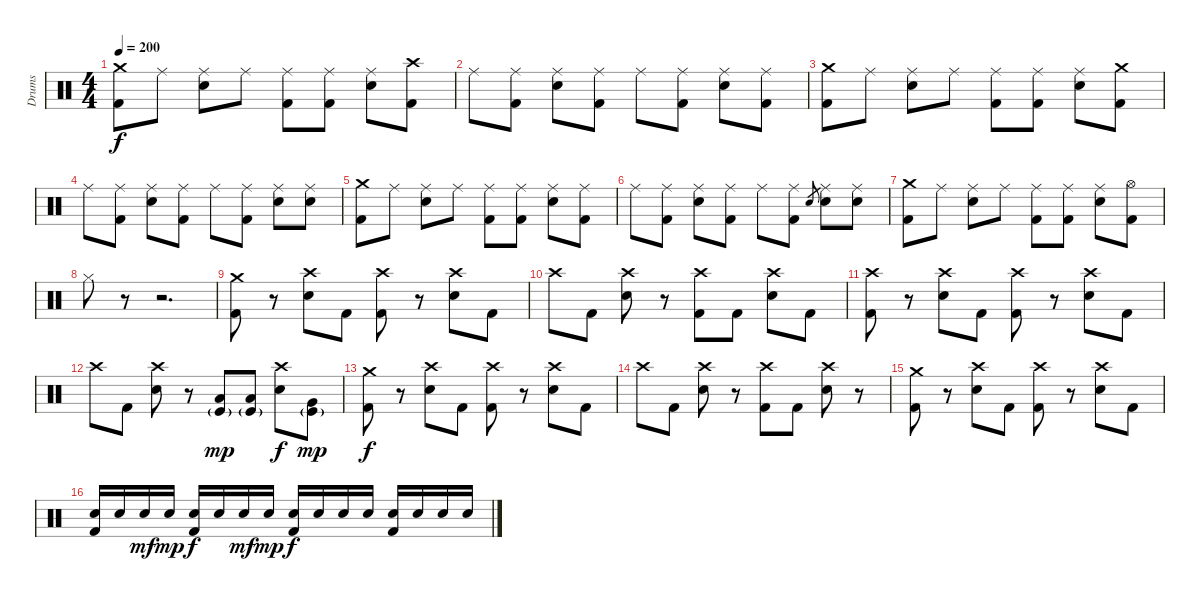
\track ("Drums" "Drums") {instrument percussion}
\staff {score}
\articulation defaults
\ts (4 4)
\tempo 200
\clef neutral
\ks c
("Crash medium (hit)" "Kick (hit) 2").8{dy f} "Ride (middle)".8 ("Ride (middle)" "Electric Snare (hit)").8 "Ride (middle)".8 ("Ride (middle)" "Kick (hit) 2").8 ("Ride (middle)" "Kick (hit) 2").8 ("Ride (middle)" "Electric Snare (hit)").8 ("Crash high (hit)" "Kick (hit) 2").8 |
"Ride (middle)".8 ("Ride (middle)" "Kick (hit) 2").8 ("Ride (middle)" "Electric Snare (hit)").8 ("Ride (middle)" "Kick (hit) 2").8 "Ride (middle)".8 ("Ride (middle)" "Kick (hit) 2").8 ("Ride (middle)" "Electric Snare (hit)").8 ("Ride (middle)" "Kick (hit) 2").8 |
("Crash medium (hit)" "Kick (hit) 2").8 "Ride (middle)".8 ("Ride (middle)" "Electric Snare (hit)").8 "Ride (middle)".8 ("Ride (middle)" "Kick (hit) 2").8 ("Ride (middle)" "Kick (hit) 2").8 ("Ride (middle)" "Electric Snare (hit)").8 ("Crash medium (hit)" "Kick (hit) 2").8 |
"Ride (middle)".8 ("Ride (middle)" "Kick (hit) 2").8 ("Ride (middle)" "Electric Snare (hit)").8 ("Ride (middle)" "Kick (hit) 2").8 "Ride (middle)".8 ("Ride (middle)" "Kick (hit) 2").8 ("Ride (middle)" "Electric Snare (hit)").8 ("Ride (middle)" "Electric Snare (hit)").8 |
("Crash medium (hit)" "Kick (hit) 2").8 "Ride (middle)".8 ("Ride (middle)" "Electric Snare (hit)").8 "Ride (middle)".8 ("Ride (middle)" "Kick (hit) 2").8 ("Ride (middle)" "Kick (hit) 2").8 ("Ride (middle)" "Electric Snare (hit)").8 ("Ride (middle)" "Kick (hit) 2").8 |
"Ride (middle)".8 ("Ride (middle)" "Kick (hit) 2").8 ("Ride (middle)" "Electric Snare (hit)").8 ("Ride (middle)" "Kick (hit) 2").8 "Ride (middle)".8 ("Ride (middle)" "Kick (hit) 2").8 "Electric Snare (hit)".8{gr} ("Ride (middle)" "Electric Snare (hit)").8 ("Ride (middle)" "Electric Snare (hit)").8 |
("Crash medium (hit)" "Kick (hit) 2").8 "Ride (middle)".8 ("Ride (middle)" "Electric Snare (hit)").8 "Ride (middle)".8 ("Ride (middle)" "Kick (hit) 2").8 ("Ride (middle)" "Kick (hit) 2").8 ("Ride (middle)" "Electric Snare (hit)").8 ("Hi-Hat (open)" "Kick (hit) 2").8 |
"Hi-Hat (closed)".8 r.8 r.2{d} |
("Crash medium (hit)" "Kick (hit) 2").8 r.8 ("Crash high (hit)" "Electric Snare (hit)").8 "Kick (hit) 2".8 ("Crash high (hit)" "Kick (hit) 2").8 r.8 ("Crash high (hit)" "Electric Snare (hit)").8 "Kick (hit) 2".8 |
"Crash high (hit)".8 "Kick (hit) 2".8 ("Crash high (hit)" "Electric Snare (hit)").8 r.8 ("Crash high (hit)" "Kick (hit) 2").8 "Kick (hit) 2".8 ("Crash high (hit)" "Electric Snare (hit)").8 "Kick (hit) 2".8 |
("Crash high (hit)" "Kick (hit) 2").8 r.8 ("Crash high (hit)" "Electric Snare (hit)").8 "Kick (hit) 2".8 ("Crash high (hit)" "Kick (hit) 2").8 r.8 ("Crash high (hit)" "Electric Snare (hit)").8 "Kick (hit) 2".8 |
"Crash high (hit)".8 "Kick (hit) 2".8 ("Crash high (hit)" "Electric Snare (hit)").8 r.8 ("Low Tom (hit)" "Kick (hit)"{g}).8{dy mp} ("Low Tom (hit)" "Kick (hit)"{g}).8 ("Crash high (hit)" "Electric Snare (hit)").8{dy f} ("Very Low Tom (hit)" "Kick (hit)"{g}).8{dy mp} |
("Crash medium (hit)" "Kick (hit) 2").8{dy f} r.8 ("Crash high (hit)" "Electric Snare (hit)").8 "Kick (hit) 2".8 ("Crash high (hit)" "Kick (hit) 2").8 r.8 ("Crash high (hit)" "Electric Snare (hit)").8 "Kick (hit) 2".8 |
"Crash high (hit)".8 "Kick (hit) 2".8 ("Crash high (hit)" "Electric Snare (hit)").8 r.8 ("Crash high (hit)" "Kick (hit) 2").8 "Kick (hit) 2".8 ("Crash high (hit)" "Electric Snare (hit)").8 r.8 |
("Crash medium (hit)" "Kick (hit) 2").8 r.8 ("Crash high (hit)" "Electric Snare (hit)").8 "Kick (hit) 2".8 ("Crash high (hit)" "Kick (hit) 2").8 r.8 ("Crash high (hit)" "Electric Snare (hit)").8 "Kick (hit) 2".8 |
("Electric Snare (hit)" "Kick (hit) 2").16 "Electric Snare (hit)".16 "Electric Snare (hit)".16{dy mf} "Electric Snare (hit)".16{dy mp} ("Electric Snare (hit)" "Kick (hit) 2").16{dy f} "Electric Snare (hit)".16 "Electric Snare (hit)".16{dy mf} "Electric Snare (hit)".16{dy mp} ("Electric Snare (hit)" "Kick (hit) 2").16{dy f} "Electric Snare (hit)".16 "Electric Snare (hit)".16 "Electric Snare (hit)".16 ("Electric Snare (hit)" "Kick (hit) 2").16 "Electric Snare (hit)".16 "Electric Snare (hit)".16 "Electric Snare (hit)".16
